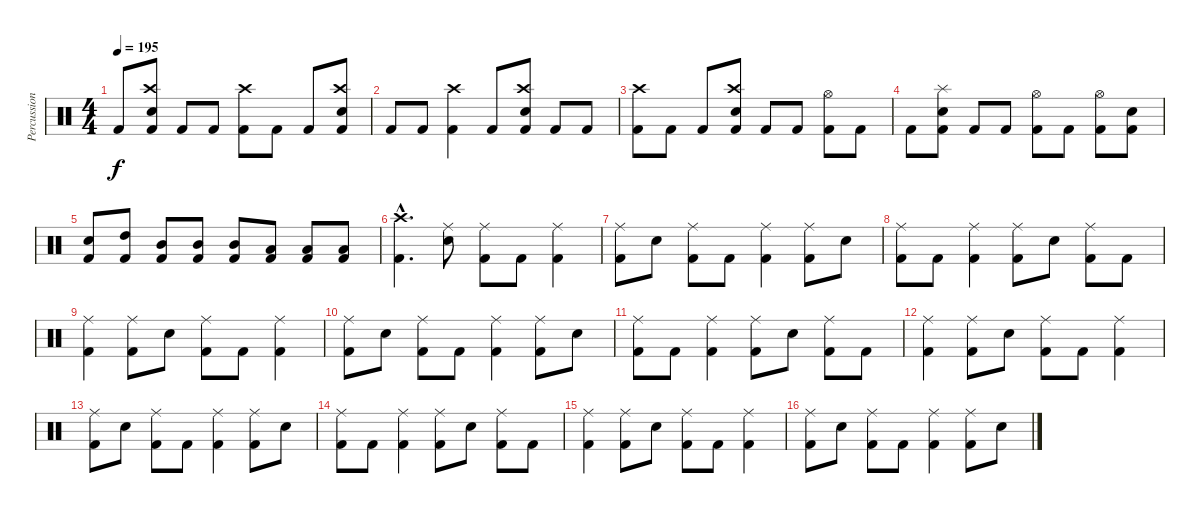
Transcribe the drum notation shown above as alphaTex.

\track ("Percussion" "Percussion") {instrument percussion}
\staff {score}
\articulation defaults
\ts (4 4)
\tempo 195
\clef neutral
\ks c "Kick (hit) 2".8{dy f}
("Crash high (hit)" "Snare (hit) 2" "Kick (hit) 2").8 "Kick (hit) 2".8 "Kick (hit) 2".8 ("Crash high (hit)" "Kick (hit) 2").8 "Kick (hit) 2".8 "Kick (hit) 2".8 ("Crash high (hit)" "Snare (hit) 2" "Kick (hit) 2").8 |
"Kick (hit) 2".8 "Kick (hit) 2".8 ("Crash high (hit)" "Kick (hit) 2").4 "Kick (hit) 2".8 ("Crash high (hit)" "Snare (hit) 2" "Kick (hit) 2").8 "Kick (hit) 2".8 "Kick (hit) 2".8 |
("Crash high (hit)" "Kick (hit) 2").8 "Kick (hit) 2".8 "Kick (hit) 2".8 ("Crash high (hit)" "Snare (hit) 2" "Kick (hit) 2").8 "Kick (hit) 2".8 "Kick (hit) 2".8 ("Hi-Hat (open)" "Kick (hit) 2").8 "Kick (hit) 2".8 |
"Kick (hit) 2".8 ("Splash (hit)" "Snare (hit) 2" "Kick (hit) 2").8 "Kick (hit) 2".8 "Kick (hit) 2".8 ("Hi-Hat (open)" "Kick (hit) 2").8 "Kick (hit) 2".8 ("Hi-Hat (open)" "Kick (hit) 2").8 ("Snare (hit) 2" "Kick (hit) 2").8 |
("Snare (hit) 2" "Kick (hit) 2").8 ("High Tom (hit)" "Kick (hit) 2").8 ("Mid Tom (hit)" "Kick (hit) 2").8 ("Mid Tom (hit)" "Kick (hit) 2").8 ("Mid Tom (hit)" "Kick (hit) 2").8 ("Low Tom (hit)" "Kick (hit) 2").8 ("Low Tom (hit)" "Kick (hit) 2").8 ("Low Tom (hit)" "Kick (hit) 2").8 |
("Crash high (hit)"{hac} "Kick (hit) 2"{hac}).4{d} ("Ride (middle)" "Snare (hit) 2").8 ("Ride (middle)" "Kick (hit) 2").8 "Kick (hit) 2".8 ("Ride (middle)" "Kick (hit) 2").4 |
("Ride (middle)" "Kick (hit) 2").8 "Snare (hit) 2".8 ("Ride (middle)" "Kick (hit) 2").8 "Kick (hit) 2".8 ("Ride (middle)" "Kick (hit) 2").4 ("Ride (middle)" "Kick (hit) 2").8 "Snare (hit) 2".8 |
("Ride (middle)" "Kick (hit) 2").8 "Kick (hit) 2".8 ("Ride (middle)" "Kick (hit) 2").4 ("Ride (middle)" "Kick (hit) 2").8 "Snare (hit) 2".8 ("Ride (middle)" "Kick (hit) 2").8 "Kick (hit) 2".8 |
("Ride (middle)" "Kick (hit) 2").4 ("Ride (middle)" "Kick (hit) 2").8 "Snare (hit) 2".8 ("Ride (middle)" "Kick (hit) 2").8 "Kick (hit) 2".8 ("Ride (middle)" "Kick (hit) 2").4 |
("Ride (middle)" "Kick (hit) 2").8 "Snare (hit) 2".8 ("Ride (middle)" "Kick (hit) 2").8 "Kick (hit) 2".8 ("Ride (middle)" "Kick (hit) 2").4 ("Ride (middle)" "Kick (hit) 2").8 "Snare (hit) 2".8 |
("Ride (middle)" "Kick (hit) 2").8 "Kick (hit) 2".8 ("Ride (middle)" "Kick (hit) 2").4 ("Ride (middle)" "Kick (hit) 2").8 "Snare (hit) 2".8 ("Ride (middle)" "Kick (hit) 2").8 "Kick (hit) 2".8 |
("Ride (middle)" "Kick (hit) 2").4 ("Ride (middle)" "Kick (hit) 2").8 "Snare (hit) 2".8 ("Ride (middle)" "Kick (hit) 2").8 "Kick (hit) 2".8 ("Ride (middle)" "Kick (hit) 2").4 |
("Ride (middle)" "Kick (hit) 2").8 "Snare (hit) 2".8 ("Ride (middle)" "Kick (hit) 2").8 "Kick (hit) 2".8 ("Ride (middle)" "Kick (hit) 2").4 ("Ride (middle)" "Kick (hit) 2").8 "Snare (hit) 2".8 |
("Ride (middle)" "Kick (hit) 2").8 "Kick (hit) 2".8 ("Ride (middle)" "Kick (hit) 2").4 ("Ride (middle)" "Kick (hit) 2").8 "Snare (hit) 2".8 ("Ride (middle)" "Kick (hit) 2").8 "Kick (hit) 2".8 |
("Ride (middle)" "Kick (hit) 2").4 ("Ride (middle)" "Kick (hit) 2").8 "Snare (hit) 2".8 ("Ride (middle)" "Kick (hit) 2").8 "Kick (hit) 2".8 ("Ride (middle)" "Kick (hit) 2").4 |
("Ride (middle)" "Kick (hit) 2").8 "Snare (hit) 2".8 ("Ride (middle)" "Kick (hit) 2").8 "Kick (hit) 2".8 ("Ride (middle)" "Kick (hit) 2").4 ("Ride (middle)" "Kick (hit) 2").8 "Snare (hit) 2".8
